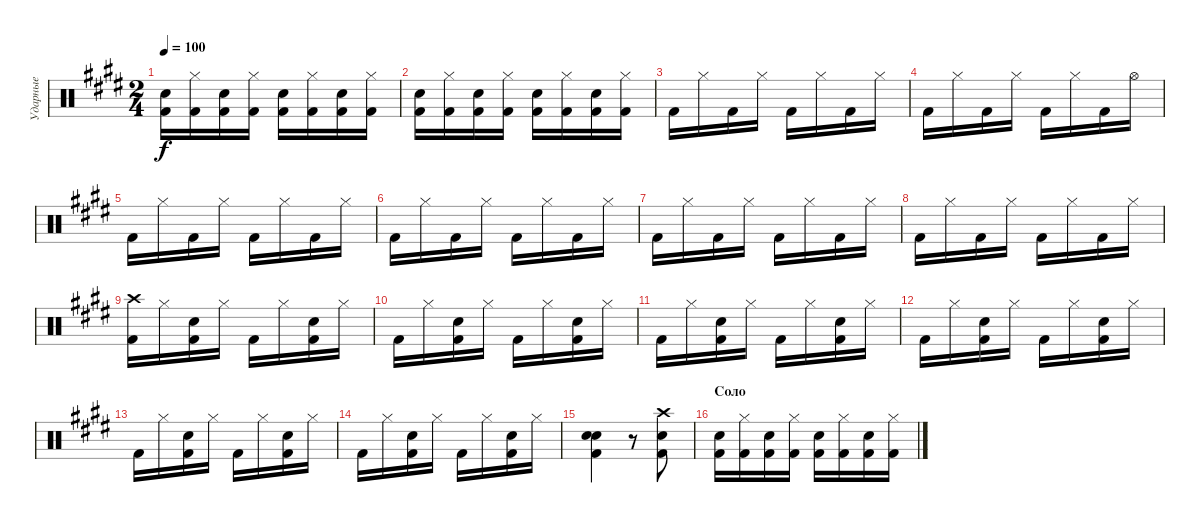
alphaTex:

\track ("Ударные" "Ударные") {instrument percussion}
\staff {score}
\articulation defaults
\ts (2 4)
\tempo 100
\clef neutral
\ks c#minor
("Snare (hit) 2" "Kick (hit) 2").16{dy f} ("Hi-Hat (closed)" "Kick (hit) 2").16 ("Snare (hit) 2" "Kick (hit) 2").16 ("Hi-Hat (closed)" "Kick (hit) 2").16 ("Snare (hit) 2" "Kick (hit) 2").16 ("Hi-Hat (closed)" "Kick (hit) 2").16 ("Snare (hit) 2" "Kick (hit) 2").16 ("Hi-Hat (closed)" "Kick (hit) 2").16 |
("Snare (hit) 2" "Kick (hit) 2").16 ("Hi-Hat (closed)" "Kick (hit) 2").16 ("Snare (hit) 2" "Kick (hit) 2").16 ("Hi-Hat (closed)" "Kick (hit) 2").16 ("Snare (hit) 2" "Kick (hit) 2").16 ("Hi-Hat (closed)" "Kick (hit) 2").16 ("Snare (hit) 2" "Kick (hit) 2").16 ("Hi-Hat (closed)" "Kick (hit) 2").16 |
"Kick (hit) 2".16 "Hi-Hat (closed)".16 "Kick (hit) 2".16 "Hi-Hat (closed)".16 "Kick (hit) 2".16 "Hi-Hat (closed)".16 "Kick (hit) 2".16 "Hi-Hat (closed)".16 |
"Kick (hit) 2".16 "Hi-Hat (closed)".16 "Kick (hit) 2".16 "Hi-Hat (closed)".16 "Kick (hit) 2".16 "Hi-Hat (closed)".16 "Kick (hit) 2".16 "Hi-Hat (open)".16 |
"Kick (hit) 2".16 "Hi-Hat (closed)".16 "Kick (hit) 2".16 "Hi-Hat (closed)".16 "Kick (hit) 2".16 "Hi-Hat (closed)".16 "Kick (hit) 2".16 "Hi-Hat (closed)".16 |
"Kick (hit) 2".16 "Hi-Hat (closed)".16 "Kick (hit) 2".16 "Hi-Hat (closed)".16 "Kick (hit) 2".16 "Hi-Hat (closed)".16 "Kick (hit) 2".16 "Hi-Hat (closed)".16 |
"Kick (hit) 2".16 "Hi-Hat (closed)".16 "Kick (hit) 2".16 "Hi-Hat (closed)".16 "Kick (hit) 2".16 "Hi-Hat (closed)".16 "Kick (hit) 2".16 "Hi-Hat (closed)".16 |
"Kick (hit) 2".16 "Hi-Hat (closed)".16 "Kick (hit) 2".16 "Hi-Hat (closed)".16 "Kick (hit) 2".16 "Hi-Hat (closed)".16 "Kick (hit) 2".16 "Hi-Hat (closed)".16 |
("Crash high (hit)" "Kick (hit) 2").16 "Hi-Hat (closed)".16 ("Snare (hit) 2" "Kick (hit) 2").16 "Hi-Hat (closed)".16 "Kick (hit) 2".16 "Hi-Hat (closed)".16 ("Snare (hit) 2" "Kick (hit) 2").16 "Hi-Hat (closed)".16 |
"Kick (hit) 2".16 "Hi-Hat (closed)".16 ("Snare (hit) 2" "Kick (hit) 2").16 "Hi-Hat (closed)".16 "Kick (hit) 2".16 "Hi-Hat (closed)".16 ("Snare (hit) 2" "Kick (hit) 2").16 "Hi-Hat (closed)".16 |
"Kick (hit) 2".16 "Hi-Hat (closed)".16 ("Snare (hit) 2" "Kick (hit) 2").16 "Hi-Hat (closed)".16 "Kick (hit) 2".16 "Hi-Hat (closed)".16 ("Snare (hit) 2" "Kick (hit) 2").16 "Hi-Hat (closed)".16 |
"Kick (hit) 2".16 "Hi-Hat (closed)".16 ("Snare (hit) 2" "Kick (hit) 2").16 "Hi-Hat (closed)".16 "Kick (hit) 2".16 "Hi-Hat (closed)".16 ("Snare (hit) 2" "Kick (hit) 2").16 "Hi-Hat (closed)".16 |
"Kick (hit) 2".16 "Hi-Hat (closed)".16 ("Snare (hit) 2" "Kick (hit) 2").16 "Hi-Hat (closed)".16 "Kick (hit) 2".16 "Hi-Hat (closed)".16 ("Snare (hit) 2" "Kick (hit) 2").16 "Hi-Hat (closed)".16 |
"Kick (hit) 2".16 "Hi-Hat (closed)".16 ("Snare (hit) 2" "Kick (hit) 2").16 "Hi-Hat (closed)".16 "Kick (hit) 2".16 "Hi-Hat (closed)".16 ("Snare (hit) 2" "Kick (hit) 2").16 "Hi-Hat (closed)".16 |
("Electric Snare (hit)" "Snare (hit) 2" "Kick (hit) 2").4 r.8 ("Crash high (hit)" "Snare (hit) 2" "Kick (hit) 2").8 |
\section ("" "Соло")
("Snare (hit) 2" "Kick (hit) 2").16 ("Hi-Hat (closed)" "Kick (hit) 2").16 ("Snare (hit) 2" "Kick (hit) 2").16 ("Hi-Hat (closed)" "Kick (hit) 2").16 ("Snare (hit) 2" "Kick (hit) 2").16 ("Hi-Hat (closed)" "Kick (hit) 2").16 ("Snare (hit) 2" "Kick (hit) 2").16 ("Hi-Hat (closed)" "Kick (hit) 2").16
